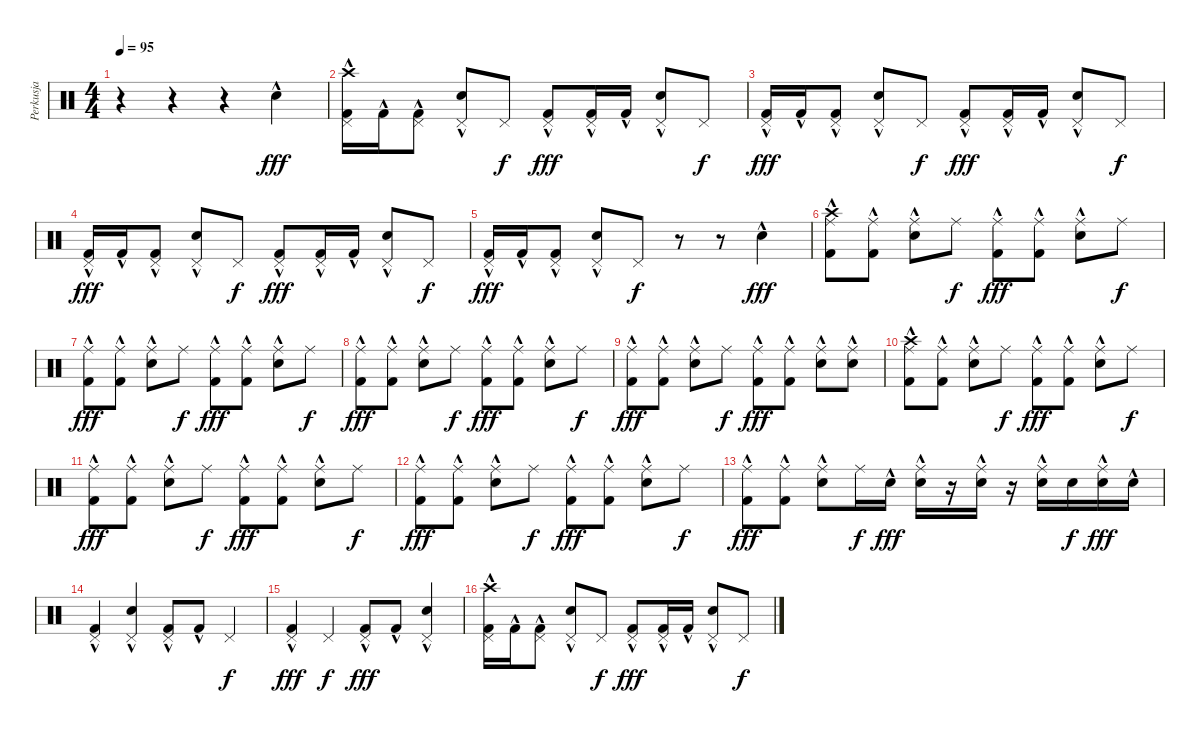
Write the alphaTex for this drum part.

\track ("Perkusja" "Perkusja") {instrument percussion}
\staff {score}
\articulation defaults
\ts (4 4)
\tempo 95
\clef neutral
\ks c
r.4{dy f} r.4 r.4 "Electric Snare (hit)"{hac}.4{dy fff} |
("Crash high (hit)" "Pedal Hi-Hat (hit)" "Kick (hit) 2"{hac}).16 "Kick (hit) 2"{hac}.16 ("Pedal Hi-Hat (hit)" "Kick (hit) 2"{hac}).8 ("Pedal Hi-Hat (hit)" "Electric Snare (hit)"{hac}).8 "Pedal Hi-Hat (hit)".8{dy f} ("Pedal Hi-Hat (hit)" "Kick (hit) 2"{hac}).8{dy fff} ("Pedal Hi-Hat (hit)" "Kick (hit) 2"{hac}).16 "Kick (hit) 2"{hac}.16 ("Pedal Hi-Hat (hit)" "Electric Snare (hit)"{hac}).8 "Pedal Hi-Hat (hit)".8{dy f} |
("Pedal Hi-Hat (hit)" "Kick (hit) 2"{hac}).16{dy fff} "Kick (hit) 2"{hac}.16 ("Pedal Hi-Hat (hit)" "Kick (hit) 2"{hac}).8 ("Pedal Hi-Hat (hit)" "Electric Snare (hit)"{hac}).8 "Pedal Hi-Hat (hit)".8{dy f} ("Pedal Hi-Hat (hit)" "Kick (hit) 2"{hac}).8{dy fff} ("Pedal Hi-Hat (hit)" "Kick (hit) 2"{hac}).16 "Kick (hit) 2"{hac}.16 ("Pedal Hi-Hat (hit)" "Electric Snare (hit)"{hac}).8 "Pedal Hi-Hat (hit)".8{dy f} |
("Pedal Hi-Hat (hit)" "Kick (hit) 2"{hac}).16{dy fff} "Kick (hit) 2"{hac}.16 ("Pedal Hi-Hat (hit)" "Kick (hit) 2"{hac}).8 ("Pedal Hi-Hat (hit)" "Electric Snare (hit)"{hac}).8 "Pedal Hi-Hat (hit)".8{dy f} ("Pedal Hi-Hat (hit)" "Kick (hit) 2"{hac}).8{dy fff} ("Pedal Hi-Hat (hit)" "Kick (hit) 2"{hac}).16 "Kick (hit) 2"{hac}.16 ("Pedal Hi-Hat (hit)" "Electric Snare (hit)"{hac}).8 "Pedal Hi-Hat (hit)".8{dy f} |
("Pedal Hi-Hat (hit)" "Kick (hit) 2"{hac}).16{dy fff} "Kick (hit) 2"{hac}.16 ("Pedal Hi-Hat (hit)" "Kick (hit) 2"{hac}).8 ("Pedal Hi-Hat (hit)" "Electric Snare (hit)"{hac}).8 "Pedal Hi-Hat (hit)".8{dy f} r.8 r.8 "Electric Snare (hit)"{hac}.4{dy fff} |
("Crash high (hit)" "Ride (middle)" "Kick (hit) 2"{hac}).8 ("Ride (middle)" "Kick (hit) 2"{hac}).8 ("Ride (middle)" "Electric Snare (hit)"{hac}).8 "Ride (middle)".8{dy f} ("Ride (middle)" "Kick (hit) 2"{hac}).8{dy fff} ("Ride (middle)" "Kick (hit) 2"{hac}).8 ("Ride (middle)" "Electric Snare (hit)"{hac}).8 "Ride (middle)".8{dy f} |
("Ride (middle)" "Kick (hit) 2"{hac}).8{dy fff} ("Ride (middle)" "Kick (hit) 2"{hac}).8 ("Ride (middle)" "Electric Snare (hit)"{hac}).8 "Ride (middle)".8{dy f} ("Ride (middle)" "Kick (hit) 2"{hac}).8{dy fff} ("Ride (middle)" "Kick (hit) 2"{hac}).8 ("Ride (middle)" "Electric Snare (hit)"{hac}).8 "Ride (middle)".8{dy f} |
("Ride (middle)" "Kick (hit) 2"{hac}).8{dy fff} ("Ride (middle)" "Kick (hit) 2"{hac}).8 ("Ride (middle)" "Electric Snare (hit)"{hac}).8 "Ride (middle)".8{dy f} ("Ride (middle)" "Kick (hit) 2"{hac}).8{dy fff} ("Ride (middle)" "Kick (hit) 2"{hac}).8 ("Ride (middle)" "Electric Snare (hit)"{hac}).8 "Ride (middle)".8{dy f} |
("Ride (middle)" "Kick (hit) 2"{hac}).8{dy fff} ("Ride (middle)" "Kick (hit) 2"{hac}).8 ("Ride (middle)" "Electric Snare (hit)"{hac}).8 "Ride (middle)".8{dy f} ("Ride (middle)" "Kick (hit) 2"{hac}).8{dy fff} ("Ride (middle)" "Kick (hit) 2"{hac}).8 ("Ride (middle)" "Electric Snare (hit)"{hac}).8 ("Ride (middle)" "Electric Snare (hit)"{hac}).8 |
("Crash high (hit)" "Ride (middle)" "Kick (hit) 2"{hac}).8 ("Ride (middle)" "Kick (hit) 2"{hac}).8 ("Ride (middle)" "Electric Snare (hit)"{hac}).8 "Ride (middle)".8{dy f} ("Ride (middle)" "Kick (hit) 2"{hac}).8{dy fff} ("Ride (middle)" "Kick (hit) 2"{hac}).8 ("Ride (middle)" "Electric Snare (hit)"{hac}).8 "Ride (middle)".8{dy f} |
("Ride (middle)" "Kick (hit) 2"{hac}).8{dy fff} ("Ride (middle)" "Kick (hit) 2"{hac}).8 ("Ride (middle)" "Electric Snare (hit)"{hac}).8 "Ride (middle)".8{dy f} ("Ride (middle)" "Kick (hit) 2"{hac}).8{dy fff} ("Ride (middle)" "Kick (hit) 2"{hac}).8 ("Ride (middle)" "Electric Snare (hit)"{hac}).8 "Ride (middle)".8{dy f} |
("Ride (middle)" "Kick (hit) 2"{hac}).8{dy fff} ("Ride (middle)" "Kick (hit) 2"{hac}).8 ("Ride (middle)" "Electric Snare (hit)"{hac}).8 "Ride (middle)".8{dy f} ("Ride (middle)" "Kick (hit) 2"{hac}).8{dy fff} ("Ride (middle)" "Kick (hit) 2"{hac}).8 ("Ride (middle)" "Electric Snare (hit)"{hac}).8 "Ride (middle)".8{dy f} |
("Ride (middle)" "Kick (hit) 2"{hac}).8{dy fff} ("Ride (middle)" "Kick (hit) 2"{hac}).8 ("Ride (middle)" "Electric Snare (hit)"{hac}).8 "Ride (middle)".16{dy f} "Electric Snare (hit)"{hac}.16{dy fff} ("Ride (middle)" "Electric Snare (hit)"{hac}).16 r.16 ("Ride (middle)" "Electric Snare (hit)"{hac}).16 r.16 ("Ride (middle)" "Electric Snare (hit)"{hac}).16 "Electric Snare (hit)".16{dy f} ("Ride (middle)" "Electric Snare (hit)"{hac}).16{dy fff} "Electric Snare (hit)"{hac}.16 |
("Pedal Hi-Hat (hit)" "Kick (hit) 2"{hac}).4 ("Pedal Hi-Hat (hit)" "Electric Snare (hit)"{hac}).4 ("Pedal Hi-Hat (hit)" "Kick (hit) 2"{hac}).8 "Kick (hit) 2"{hac}.8 "Pedal Hi-Hat (hit)".4{dy f} |
("Pedal Hi-Hat (hit)" "Kick (hit) 2"{hac}).4{dy fff} "Pedal Hi-Hat (hit)".4{dy f} ("Pedal Hi-Hat (hit)" "Kick (hit) 2"{hac}).8{dy fff} "Kick (hit) 2"{hac}.8 ("Pedal Hi-Hat (hit)" "Electric Snare (hit)"{hac}).4 |
("Crash high (hit)" "Pedal Hi-Hat (hit)" "Kick (hit) 2"{hac}).16 "Kick (hit) 2"{hac}.16 ("Pedal Hi-Hat (hit)" "Kick (hit) 2"{hac}).8 ("Pedal Hi-Hat (hit)" "Electric Snare (hit)"{hac}).8 "Pedal Hi-Hat (hit)".8{dy f} ("Pedal Hi-Hat (hit)" "Kick (hit) 2"{hac}).8{dy fff} ("Pedal Hi-Hat (hit)" "Kick (hit) 2"{hac}).16 "Kick (hit) 2"{hac}.16 ("Pedal Hi-Hat (hit)" "Electric Snare (hit)"{hac}).8 "Pedal Hi-Hat (hit)".8{dy f}
